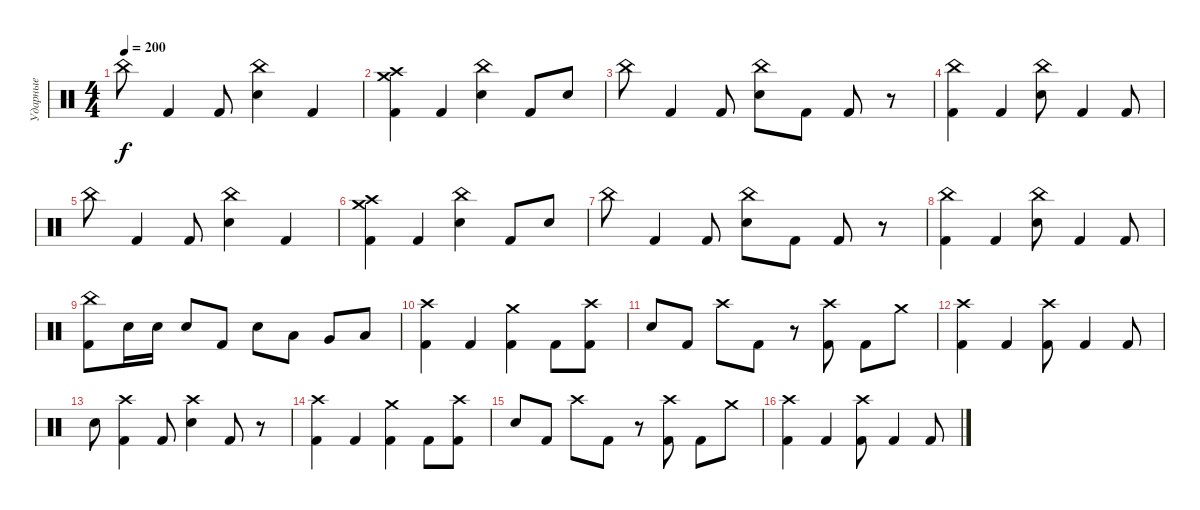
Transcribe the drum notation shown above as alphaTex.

\track ("Ударные" "Ударные") {instrument percussion}
\staff {score}
\articulation defaults
\ts (4 4)
\tempo 200
\clef neutral
\ks c "China (hit)".8{dy f} "Kick (hit) 2".4 "Kick (hit) 2".8
("China (hit)" "Snare (hit) 2").4 "Kick (hit) 2".4 |
("Crash high (hit)" "Crash medium (hit)" "Kick (hit) 2").4 "Kick (hit) 2".4 ("China (hit)" "Snare (hit) 2").4 "Kick (hit) 2".8 "Snare (hit) 2".8 |
"China (hit)".8 "Kick (hit) 2".4 "Kick (hit) 2".8 ("China (hit)" "Snare (hit) 2").8 "Kick (hit) 2".8 "Kick (hit) 2".8 r.8 |
("China (hit)" "Kick (hit) 2").4 "Kick (hit) 2".4 ("China (hit)" "Snare (hit) 2").8 "Kick (hit) 2".4 "Kick (hit) 2".8 |
"China (hit)".8 "Kick (hit) 2".4 "Kick (hit) 2".8 ("China (hit)" "Snare (hit) 2").4 "Kick (hit) 2".4 |
("Crash high (hit)" "Crash medium (hit)" "Kick (hit) 2").4 "Kick (hit) 2".4 ("China (hit)" "Snare (hit) 2").4 "Kick (hit) 2".8 "Snare (hit) 2".8 |
"China (hit)".8 "Kick (hit) 2".4 "Kick (hit) 2".8 ("China (hit)" "Snare (hit) 2").8 "Kick (hit) 2".8 "Kick (hit) 2".8 r.8 |
("China (hit)" "Kick (hit) 2").4 "Kick (hit) 2".4 ("China (hit)" "Snare (hit) 2").8 "Kick (hit) 2".4 "Kick (hit) 2".8 |
("China (hit)" "Kick (hit) 2").8 "Snare (hit) 2".16 "Snare (hit) 2".16 "Snare (hit) 2".8 "Kick (hit) 2".8 "Snare (hit) 2".8 "Low Tom (hit)".8 "Very Low Tom (hit)".8 "Low Floor Tom (hit)".8 |
("Crash high (hit)" "Kick (hit) 2").4 "Kick (hit) 2".4 ("Crash medium (hit)" "Kick (hit) 2").4 "Kick (hit) 2".8 ("Crash high (hit)" "Kick (hit) 2").8 |
"Snare (hit) 2".8 "Kick (hit) 2".8 "Crash high (hit)".8 "Kick (hit) 2".8 r.8 ("Crash high (hit)" "Kick (hit) 2").8 "Kick (hit) 2".8 "Crash medium (hit)".8 |
("Crash high (hit)" "Kick (hit) 2").4 "Kick (hit) 2".4 ("Crash high (hit)" "Kick (hit) 2").8 "Kick (hit) 2".4 "Kick (hit) 2".8 |
"Snare (hit) 2".8 ("Crash high (hit)" "Kick (hit) 2").4 "Kick (hit) 2".8 ("Crash high (hit)" "Snare (hit) 2").4 "Kick (hit) 2".8 r.8 |
("Crash high (hit)" "Kick (hit) 2").4 "Kick (hit) 2".4 ("Crash medium (hit)" "Kick (hit) 2").4 "Kick (hit) 2".8 ("Crash high (hit)" "Kick (hit) 2").8 |
"Snare (hit) 2".8 "Kick (hit) 2".8 "Crash high (hit)".8 "Kick (hit) 2".8 r.8 ("Crash high (hit)" "Kick (hit) 2").8 "Kick (hit) 2".8 "Crash medium (hit)".8 |
("Crash high (hit)" "Kick (hit) 2").4 "Kick (hit) 2".4 ("Crash high (hit)" "Kick (hit) 2").8 "Kick (hit) 2".4 "Kick (hit) 2".8
